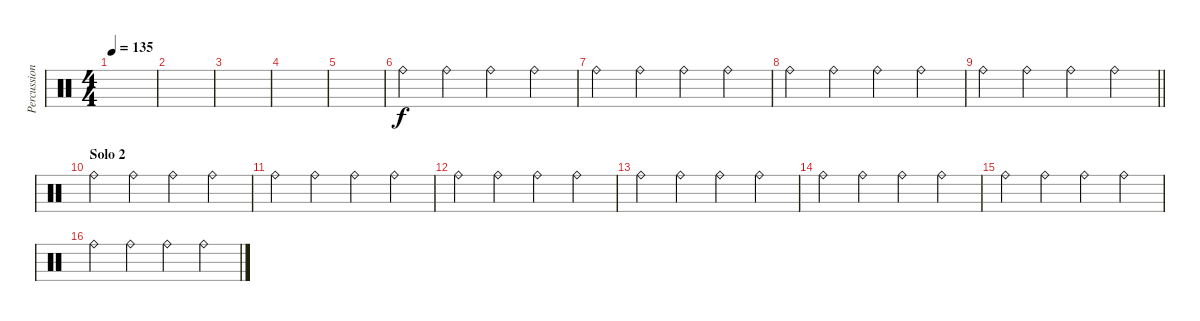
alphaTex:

\track ("Percussion" "Percussion") {instrument percussion}
\staff {score}
\articulation defaults
\ts (4 4)
\tempo 135
\clef neutral
\ks c
|
|
|
|
|
"Ride (bell)".4 "Ride (bell)".4 "Ride (bell)".4 "Ride (bell)".4 |
"Ride (bell)".4 "Ride (bell)".4 "Ride (bell)".4 "Ride (bell)".4 |
"Ride (bell)".4 "Ride (bell)".4 "Ride (bell)".4 "Ride (bell)".4 |
\barLineRight lightlight "Ride (bell)".4 "Ride (bell)".4 "Ride (bell)".4 "Ride (bell)".4
|
\section ("" "Solo 2")
"Ride (bell)".4 "Ride (bell)".4 "Ride (bell)".4 "Ride (bell)".4 |
"Ride (bell)".4 "Ride (bell)".4 "Ride (bell)".4 "Ride (bell)".4 |
"Ride (bell)".4 "Ride (bell)".4 "Ride (bell)".4 "Ride (bell)".4 |
"Ride (bell)".4 "Ride (bell)".4 "Ride (bell)".4 "Ride (bell)".4 |
"Ride (bell)".4 "Ride (bell)".4 "Ride (bell)".4 "Ride (bell)".4 |
"Ride (bell)".4 "Ride (bell)".4 "Ride (bell)".4 "Ride (bell)".4 |
"Ride (bell)".4 "Ride (bell)".4 "Ride (bell)".4 "Ride (bell)".4
